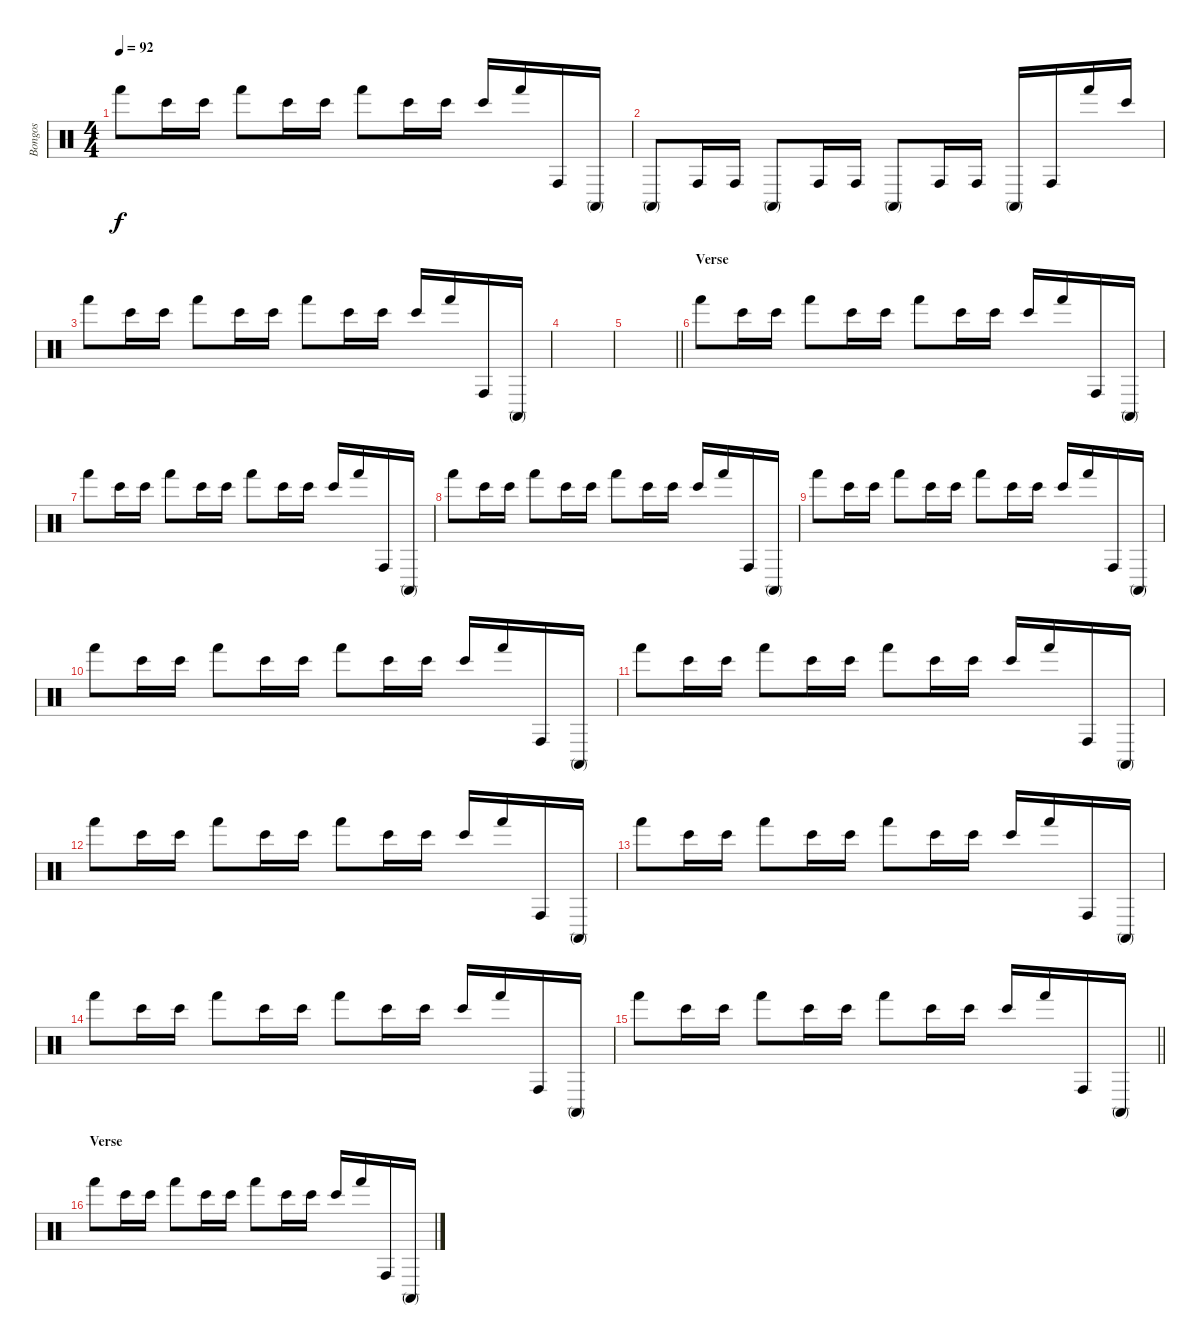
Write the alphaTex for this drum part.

\track ("Bongos" "Bongos") {instrument percussion}
\staff {score}
\articulation defaults
\ts (4 4)
\tempo 92
\clef neutral
\ks c "Hand (hit)".8{dy f} "Bongo High (hit)".16 "Bongo High (hit)".16 "Hand (hit)".8 "Bongo High (hit)".16 "Bongo High (hit)".16 "Hand (hit)".8 "Bongo High (hit)".16 "Bongo High (hit)".16 "Bongo High (hit)".16 "Hand (hit)".16 "Conga high (hit)".16 "Conga high (mute)".16
|
"Conga high (mute)".8 "Conga high (hit)".16 "Conga high (hit)".16 "Conga high (mute)".8 "Conga high (hit)".16 "Conga high (hit)".16 "Conga high (mute)".8 "Conga high (hit)".16 "Conga high (hit)".16 "Conga high (mute)".16 "Conga high (hit)".16 "Hand (hit)".16 "Bongo High (hit)".16 |
"Hand (hit)".8 "Bongo High (hit)".16 "Bongo High (hit)".16 "Hand (hit)".8 "Bongo High (hit)".16 "Bongo High (hit)".16 "Hand (hit)".8 "Bongo High (hit)".16 "Bongo High (hit)".16 "Bongo High (hit)".16 "Hand (hit)".16 "Conga high (hit)".16 "Conga high (mute)".16 |
|
\barLineRight lightlight
|
\section ("" "Verse")
"Hand (hit)".8{volume 8} "Bongo High (hit)".16 "Bongo High (hit)".16 "Hand (hit)".8 "Bongo High (hit)".16 "Bongo High (hit)".16 "Hand (hit)".8 "Bongo High (hit)".16 "Bongo High (hit)".16 "Bongo High (hit)".16 "Hand (hit)".16 "Conga high (hit)".16 "Conga high (mute)".16 |
"Hand (hit)".8 "Bongo High (hit)".16 "Bongo High (hit)".16 "Hand (hit)".8 "Bongo High (hit)".16 "Bongo High (hit)".16 "Hand (hit)".8 "Bongo High (hit)".16 "Bongo High (hit)".16 "Bongo High (hit)".16 "Hand (hit)".16 "Conga high (hit)".16 "Conga high (mute)".16 |
"Hand (hit)".8{volume 8} "Bongo High (hit)".16 "Bongo High (hit)".16 "Hand (hit)".8 "Bongo High (hit)".16 "Bongo High (hit)".16 "Hand (hit)".8 "Bongo High (hit)".16 "Bongo High (hit)".16 "Bongo High (hit)".16 "Hand (hit)".16 "Conga high (hit)".16 "Conga high (mute)".16 |
"Hand (hit)".8 "Bongo High (hit)".16 "Bongo High (hit)".16 "Hand (hit)".8 "Bongo High (hit)".16 "Bongo High (hit)".16 "Hand (hit)".8 "Bongo High (hit)".16 "Bongo High (hit)".16 "Bongo High (hit)".16 "Hand (hit)".16 "Conga high (hit)".16 "Conga high (mute)".16 |
"Hand (hit)".8{volume 8} "Bongo High (hit)".16 "Bongo High (hit)".16 "Hand (hit)".8 "Bongo High (hit)".16 "Bongo High (hit)".16 "Hand (hit)".8 "Bongo High (hit)".16 "Bongo High (hit)".16 "Bongo High (hit)".16 "Hand (hit)".16 "Conga high (hit)".16 "Conga high (mute)".16 |
"Hand (hit)".8 "Bongo High (hit)".16 "Bongo High (hit)".16 "Hand (hit)".8 "Bongo High (hit)".16 "Bongo High (hit)".16 "Hand (hit)".8 "Bongo High (hit)".16 "Bongo High (hit)".16 "Bongo High (hit)".16 "Hand (hit)".16 "Conga high (hit)".16 "Conga high (mute)".16 |
"Hand (hit)".8{volume 8} "Bongo High (hit)".16 "Bongo High (hit)".16 "Hand (hit)".8 "Bongo High (hit)".16 "Bongo High (hit)".16 "Hand (hit)".8 "Bongo High (hit)".16 "Bongo High (hit)".16 "Bongo High (hit)".16 "Hand (hit)".16 "Conga high (hit)".16 "Conga high (mute)".16 |
"Hand (hit)".8 "Bongo High (hit)".16 "Bongo High (hit)".16 "Hand (hit)".8 "Bongo High (hit)".16 "Bongo High (hit)".16 "Hand (hit)".8 "Bongo High (hit)".16 "Bongo High (hit)".16 "Bongo High (hit)".16 "Hand (hit)".16 "Conga high (hit)".16 "Conga high (mute)".16 |
"Hand (hit)".8{volume 8} "Bongo High (hit)".16 "Bongo High (hit)".16 "Hand (hit)".8 "Bongo High (hit)".16 "Bongo High (hit)".16 "Hand (hit)".8 "Bongo High (hit)".16 "Bongo High (hit)".16 "Bongo High (hit)".16 "Hand (hit)".16 "Conga high (hit)".16 "Conga high (mute)".16 |
\barLineRight lightlight "Hand (hit)".8 "Bongo High (hit)".16 "Bongo High (hit)".16 "Hand (hit)".8 "Bongo High (hit)".16 "Bongo High (hit)".16 "Hand (hit)".8 "Bongo High (hit)".16 "Bongo High (hit)".16 "Bongo High (hit)".16 "Hand (hit)".16 "Conga high (hit)".16 "Conga high (mute)".16
|
\section ("" "Verse")
"Hand (hit)".8{volume 8} "Bongo High (hit)".16 "Bongo High (hit)".16 "Hand (hit)".8 "Bongo High (hit)".16 "Bongo High (hit)".16 "Hand (hit)".8 "Bongo High (hit)".16 "Bongo High (hit)".16 "Bongo High (hit)".16 "Hand (hit)".16 "Conga high (hit)".16 "Conga high (mute)".16
